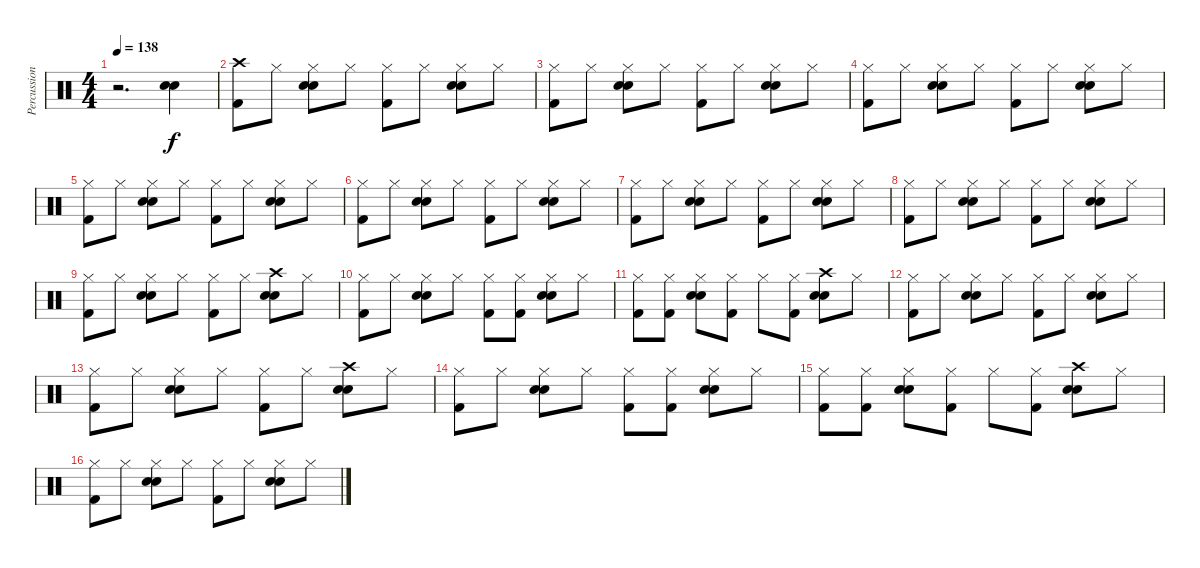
\track ("Percussions" "Percussion") {instrument percussion}
\staff {score}
\articulation defaults
\ts (4 4)
\tempo 138
\clef neutral
\ks c
r.2{d dy f} ("Snare (hit) 2" "Electric Snare (hit)").4 |
("Crash high (hit)" "Kick (hit) 2").8 "Hi-Hat (closed)".8 ("Hi-Hat (closed)" "Snare (hit) 2" "Electric Snare (hit)").8 "Hi-Hat (closed)".8 ("Hi-Hat (closed)" "Kick (hit) 2").8 "Hi-Hat (closed)".8 ("Hi-Hat (closed)" "Snare (hit) 2" "Electric Snare (hit)").8 "Hi-Hat (closed)".8 |
("Hi-Hat (closed)" "Kick (hit) 2").8 "Hi-Hat (closed)".8 ("Hi-Hat (closed)" "Snare (hit) 2" "Electric Snare (hit)").8 "Hi-Hat (closed)".8 ("Hi-Hat (closed)" "Kick (hit) 2").8 "Hi-Hat (closed)".8 ("Hi-Hat (closed)" "Snare (hit) 2" "Electric Snare (hit)").8 "Hi-Hat (closed)".8 |
("Hi-Hat (closed)" "Kick (hit) 2").8 "Hi-Hat (closed)".8 ("Hi-Hat (closed)" "Snare (hit) 2" "Electric Snare (hit)").8 "Hi-Hat (closed)".8 ("Hi-Hat (closed)" "Kick (hit) 2").8 "Hi-Hat (closed)".8 ("Hi-Hat (closed)" "Snare (hit) 2" "Electric Snare (hit)").8 "Hi-Hat (closed)".8 |
("Hi-Hat (closed)" "Kick (hit) 2").8 "Hi-Hat (closed)".8 ("Hi-Hat (closed)" "Snare (hit) 2" "Electric Snare (hit)").8 "Hi-Hat (closed)".8 ("Hi-Hat (closed)" "Kick (hit) 2").8 "Hi-Hat (closed)".8 ("Hi-Hat (closed)" "Snare (hit) 2" "Electric Snare (hit)").8 "Hi-Hat (closed)".8 |
("Hi-Hat (closed)" "Kick (hit) 2").8 "Hi-Hat (closed)".8 ("Hi-Hat (closed)" "Snare (hit) 2" "Electric Snare (hit)").8 "Hi-Hat (closed)".8 ("Hi-Hat (closed)" "Kick (hit) 2").8 "Hi-Hat (closed)".8 ("Hi-Hat (closed)" "Snare (hit) 2" "Electric Snare (hit)").8 "Hi-Hat (closed)".8 |
("Hi-Hat (closed)" "Kick (hit) 2").8 "Hi-Hat (closed)".8 ("Hi-Hat (closed)" "Snare (hit) 2" "Electric Snare (hit)").8 "Hi-Hat (closed)".8 ("Hi-Hat (closed)" "Kick (hit) 2").8 "Hi-Hat (closed)".8 ("Hi-Hat (closed)" "Snare (hit) 2" "Electric Snare (hit)").8 "Hi-Hat (closed)".8 |
("Hi-Hat (closed)" "Kick (hit) 2").8 "Hi-Hat (closed)".8 ("Hi-Hat (closed)" "Snare (hit) 2" "Electric Snare (hit)").8 "Hi-Hat (closed)".8 ("Hi-Hat (closed)" "Kick (hit) 2").8 "Hi-Hat (closed)".8 ("Hi-Hat (closed)" "Snare (hit) 2" "Electric Snare (hit)").8 "Hi-Hat (closed)".8 |
("Hi-Hat (closed)" "Kick (hit) 2").8 "Hi-Hat (closed)".8 ("Hi-Hat (closed)" "Snare (hit) 2" "Electric Snare (hit)").8 "Hi-Hat (closed)".8 ("Hi-Hat (closed)" "Kick (hit) 2").8 "Hi-Hat (closed)".8 ("Crash high (hit)" "Snare (hit) 2" "Electric Snare (hit)").8 "Hi-Hat (closed)".8 |
("Hi-Hat (closed)" "Kick (hit) 2").8 "Hi-Hat (closed)".8 ("Hi-Hat (closed)" "Snare (hit) 2" "Electric Snare (hit)").8 "Hi-Hat (closed)".8 ("Hi-Hat (closed)" "Kick (hit) 2").8 ("Hi-Hat (closed)" "Kick (hit) 2").8 ("Hi-Hat (closed)" "Snare (hit) 2" "Electric Snare (hit)").8 "Hi-Hat (closed)".8 |
("Hi-Hat (closed)" "Kick (hit) 2").8 ("Hi-Hat (closed)" "Kick (hit) 2").8 ("Hi-Hat (closed)" "Snare (hit) 2" "Electric Snare (hit)").8 ("Hi-Hat (closed)" "Kick (hit) 2").8 "Hi-Hat (closed)".8 ("Hi-Hat (closed)" "Kick (hit) 2").8 ("Crash high (hit)" "Snare (hit) 2" "Electric Snare (hit)").8 "Hi-Hat (closed)".8 |
("Hi-Hat (closed)" "Kick (hit) 2").8 "Hi-Hat (closed)".8 ("Hi-Hat (closed)" "Snare (hit) 2" "Electric Snare (hit)").8 "Hi-Hat (closed)".8 ("Hi-Hat (closed)" "Kick (hit) 2").8 "Hi-Hat (closed)".8 ("Hi-Hat (closed)" "Snare (hit) 2" "Electric Snare (hit)").8 "Hi-Hat (closed)".8 |
("Hi-Hat (closed)" "Kick (hit) 2").8 "Hi-Hat (closed)".8 ("Hi-Hat (closed)" "Snare (hit) 2" "Electric Snare (hit)").8 "Hi-Hat (closed)".8 ("Hi-Hat (closed)" "Kick (hit) 2").8 "Hi-Hat (closed)".8 ("Crash high (hit)" "Snare (hit) 2" "Electric Snare (hit)").8 "Hi-Hat (closed)".8 |
("Hi-Hat (closed)" "Kick (hit) 2").8 "Hi-Hat (closed)".8 ("Hi-Hat (closed)" "Snare (hit) 2" "Electric Snare (hit)").8 "Hi-Hat (closed)".8 ("Hi-Hat (closed)" "Kick (hit) 2").8 ("Hi-Hat (closed)" "Kick (hit) 2").8 ("Hi-Hat (closed)" "Snare (hit) 2" "Electric Snare (hit)").8 "Hi-Hat (closed)".8 |
("Hi-Hat (closed)" "Kick (hit) 2").8 ("Hi-Hat (closed)" "Kick (hit) 2").8 ("Hi-Hat (closed)" "Snare (hit) 2" "Electric Snare (hit)").8 ("Hi-Hat (closed)" "Kick (hit) 2").8 "Hi-Hat (closed)".8 ("Hi-Hat (closed)" "Kick (hit) 2").8 ("Crash high (hit)" "Snare (hit) 2" "Electric Snare (hit)").8 "Hi-Hat (closed)".8 |
("Hi-Hat (closed)" "Kick (hit) 2").8 "Hi-Hat (closed)".8 ("Hi-Hat (closed)" "Snare (hit) 2" "Electric Snare (hit)").8 "Hi-Hat (closed)".8 ("Hi-Hat (closed)" "Kick (hit) 2").8 "Hi-Hat (closed)".8 ("Hi-Hat (closed)" "Snare (hit) 2" "Electric Snare (hit)").8 "Hi-Hat (closed)".8
